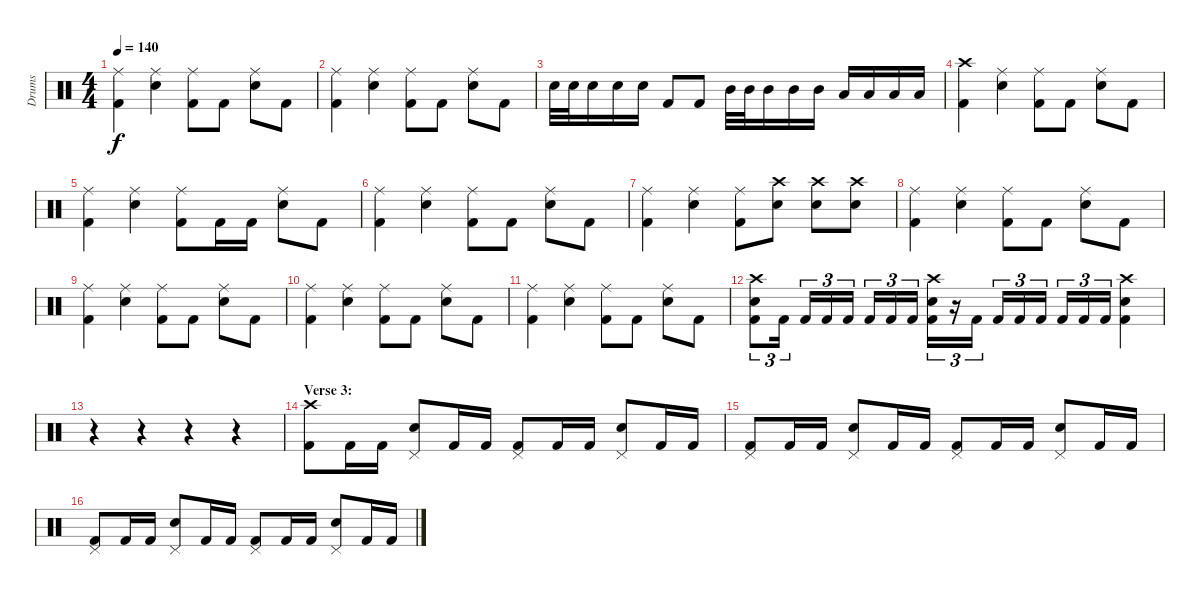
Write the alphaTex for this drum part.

\track ("Drums" "Drums") {instrument percussion}
\staff {score}
\articulation defaults
\ts (4 4)
\tempo 140
\clef neutral
\ks c
("Ride (middle)" "Kick (hit) 2").4{dy f} ("Ride (middle)" "Electric Snare (hit)").4 ("Ride (middle)" "Kick (hit) 2").8 "Kick (hit) 2".8 ("Ride (middle)" "Electric Snare (hit)").8 "Kick (hit) 2".8 |
("Ride (middle)" "Kick (hit) 2").4 ("Ride (middle)" "Electric Snare (hit)").4 ("Ride (middle)" "Kick (hit) 2").8 "Kick (hit) 2".8 ("Ride (middle)" "Electric Snare (hit)").8 "Kick (hit) 2".8 |
"Electric Snare (hit)".32 "Electric Snare (hit)".32 "Electric Snare (hit)".16 "Electric Snare (hit)".16 "Electric Snare (hit)".16 "Kick (hit) 2".8 "Kick (hit) 2".8 "Mid Tom (hit)".32 "Mid Tom (hit)".32 "Mid Tom (hit)".16 "Mid Tom (hit)".16 "Mid Tom (hit)".16 "Low Tom (hit)".16 "Low Tom (hit)".16 "Low Tom (hit)".16 "Low Tom (hit)".16 |
("Crash high (hit)" "Kick (hit) 2").4 ("Ride (middle)" "Electric Snare (hit)").4 ("Ride (middle)" "Kick (hit) 2").8 "Kick (hit) 2".8 ("Ride (middle)" "Electric Snare (hit)").8 "Kick (hit) 2".8 |
("Ride (middle)" "Kick (hit) 2").4 ("Ride (middle)" "Electric Snare (hit)").4 ("Ride (middle)" "Kick (hit) 2").8 "Kick (hit) 2".16 "Kick (hit) 2".16 ("Ride (middle)" "Electric Snare (hit)").8 "Kick (hit) 2".8 |
("Ride (middle)" "Kick (hit) 2").4 ("Ride (middle)" "Electric Snare (hit)").4 ("Ride (middle)" "Kick (hit) 2").8 "Kick (hit) 2".8 ("Ride (middle)" "Electric Snare (hit)").8 "Kick (hit) 2".8 |
("Ride (middle)" "Kick (hit) 2").4 ("Ride (middle)" "Electric Snare (hit)").4 ("Ride (middle)" "Kick (hit) 2").8 ("Crash high (hit)" "Electric Snare (hit)").8 ("Crash high (hit)" "Electric Snare (hit)").8 ("Crash high (hit)" "Electric Snare (hit)").8 |
("Ride (middle)" "Kick (hit) 2").4 ("Ride (middle)" "Electric Snare (hit)").4 ("Ride (middle)" "Kick (hit) 2").8 "Kick (hit) 2".8 ("Ride (middle)" "Electric Snare (hit)").8 "Kick (hit) 2".8 |
("Ride (middle)" "Kick (hit) 2").4 ("Ride (middle)" "Electric Snare (hit)").4 ("Ride (middle)" "Kick (hit) 2").8 "Kick (hit) 2".8 ("Ride (middle)" "Electric Snare (hit)").8 "Kick (hit) 2".8 |
("Ride (middle)" "Kick (hit) 2").4 ("Ride (middle)" "Electric Snare (hit)").4 ("Ride (middle)" "Kick (hit) 2").8 "Kick (hit) 2".8 ("Ride (middle)" "Electric Snare (hit)").8 "Kick (hit) 2".8 |
("Ride (middle)" "Kick (hit) 2").4 ("Ride (middle)" "Electric Snare (hit)").4 ("Ride (middle)" "Kick (hit) 2").8 "Kick (hit) 2".8 ("Ride (middle)" "Electric Snare (hit)").8 "Kick (hit) 2".8 |
("Crash high (hit)" "Electric Snare (hit)" "Kick (hit) 2").8{tu (3 2)} "Kick (hit) 2".16{tu (3 2)} "Kick (hit) 2".16{tu (3 2)} "Kick (hit) 2".16{tu (3 2)} "Kick (hit) 2".16{tu (3 2)} "Kick (hit) 2".16{tu (3 2)} "Kick (hit) 2".16{tu (3 2)} "Kick (hit) 2".16{tu (3 2)} ("Crash high (hit)" "Electric Snare (hit)" "Kick (hit) 2").16{tu (3 2)} r.16{tu (3 2)} "Kick (hit) 2".16{tu (3 2)} "Kick (hit) 2".16{tu (3 2)} "Kick (hit) 2".16{tu (3 2)} "Kick (hit) 2".16{tu (3 2)} "Kick (hit) 2".16{tu (3 2)} "Kick (hit) 2".16{tu (3 2)} "Kick (hit) 2".16{tu (3 2)} ("Crash high (hit)" "Electric Snare (hit)" "Kick (hit) 2").4 |
r.4 r.4 r.4 r.4 |
\section ("" "Verse 3:")
("Crash high (hit)" "Kick (hit) 2").8 "Kick (hit) 2".16 "Kick (hit) 2".16 ("Pedal Hi-Hat (hit)" "Electric Snare (hit)").8 "Kick (hit) 2".16 "Kick (hit) 2".16 ("Pedal Hi-Hat (hit)" "Kick (hit) 2").8 "Kick (hit) 2".16 "Kick (hit) 2".16 ("Pedal Hi-Hat (hit)" "Electric Snare (hit)").8 "Kick (hit) 2".16 "Kick (hit) 2".16 |
("Pedal Hi-Hat (hit)" "Kick (hit) 2").8 "Kick (hit) 2".16 "Kick (hit) 2".16 ("Pedal Hi-Hat (hit)" "Electric Snare (hit)").8 "Kick (hit) 2".16 "Kick (hit) 2".16 ("Pedal Hi-Hat (hit)" "Kick (hit) 2").8 "Kick (hit) 2".16 "Kick (hit) 2".16 ("Pedal Hi-Hat (hit)" "Electric Snare (hit)").8 "Kick (hit) 2".16 "Kick (hit) 2".16 |
("Pedal Hi-Hat (hit)" "Kick (hit) 2").8 "Kick (hit) 2".16 "Kick (hit) 2".16 ("Pedal Hi-Hat (hit)" "Electric Snare (hit)").8 "Kick (hit) 2".16 "Kick (hit) 2".16 ("Pedal Hi-Hat (hit)" "Kick (hit) 2").8 "Kick (hit) 2".16 "Kick (hit) 2".16 ("Pedal Hi-Hat (hit)" "Electric Snare (hit)").8 "Kick (hit) 2".16 "Kick (hit) 2".16
